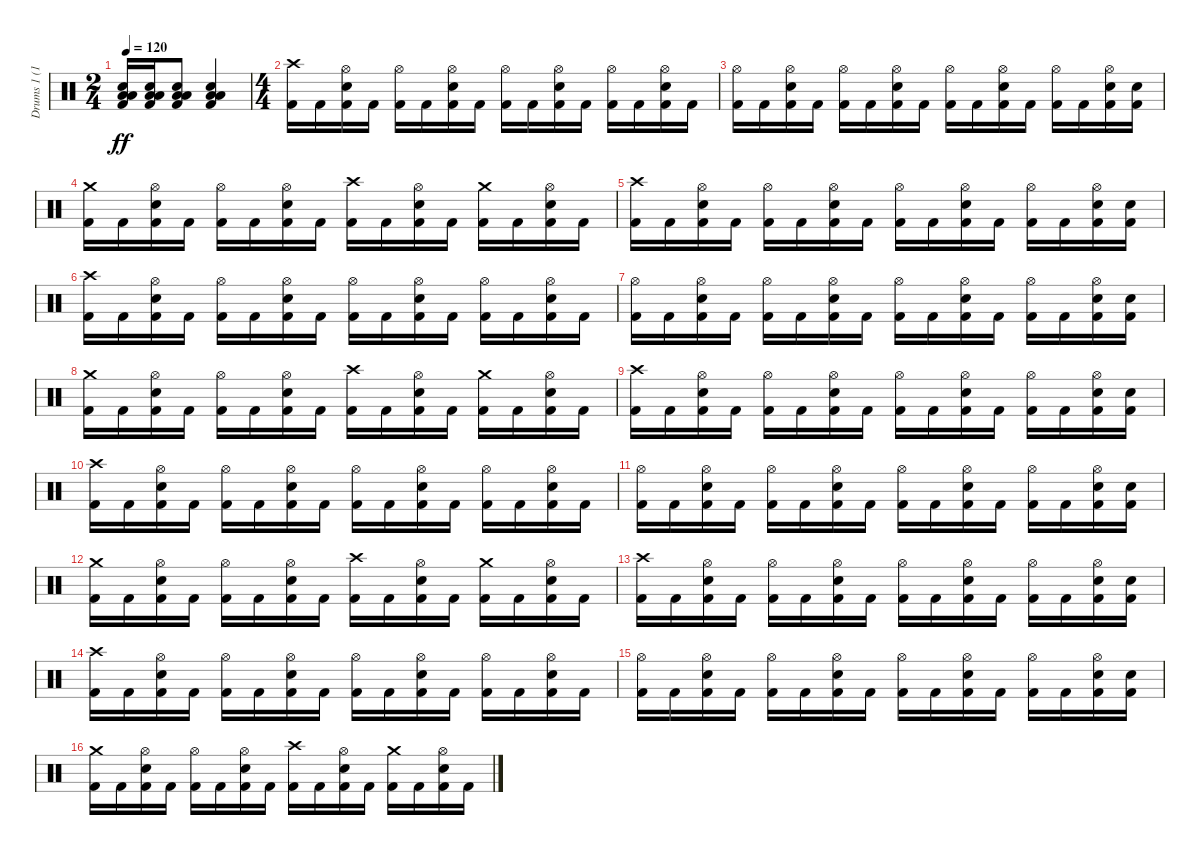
\track ("Drums 1 (16)" "Drums 1 (1") {instrument percussion}
\staff {score}
\articulation defaults
\ts (2 4)
\tempo 120
\clef neutral
\ks c
("Kick (hit) 2" "Snare (hit) 2" "Low Floor Tom (hit)" "Low Tom (hit)").16{dy ff balance 8} ("Kick (hit) 2" "Snare (hit) 2" "Low Floor Tom (hit)" "Low Tom (hit)").16 ("Kick (hit) 2" "Snare (hit) 2" "Low Floor Tom (hit)" "Low Tom (hit)").8 ("Kick (hit) 2" "Snare (hit) 2" "Low Floor Tom (hit)" "Low Tom (hit)").4 |
\ts (4 4)
("Kick (hit) 2" "Crash high (hit)").16 "Kick (hit) 2".16 ("Kick (hit) 2" "Snare (hit) 2" "Hi-Hat (open)").16 "Kick (hit) 2".16 ("Kick (hit) 2" "Hi-Hat (open)").16 "Kick (hit) 2".16 ("Kick (hit) 2" "Snare (hit) 2" "Hi-Hat (open)").16 "Kick (hit) 2".16 ("Kick (hit) 2" "Hi-Hat (open)").16 "Kick (hit) 2".16 ("Kick (hit) 2" "Snare (hit) 2" "Hi-Hat (open)").16 "Kick (hit) 2".16 ("Kick (hit) 2" "Hi-Hat (open)").16 "Kick (hit) 2".16 ("Kick (hit) 2" "Snare (hit) 2" "Hi-Hat (open)").16 "Kick (hit) 2".16 |
("Kick (hit) 2" "Hi-Hat (open)").16 "Kick (hit) 2".16 ("Kick (hit) 2" "Snare (hit) 2" "Hi-Hat (open)").16 "Kick (hit) 2".16 ("Kick (hit) 2" "Hi-Hat (open)").16 "Kick (hit) 2".16 ("Kick (hit) 2" "Snare (hit) 2" "Hi-Hat (open)").16 "Kick (hit) 2".16 ("Kick (hit) 2" "Hi-Hat (open)").16 "Kick (hit) 2".16 ("Kick (hit) 2" "Snare (hit) 2" "Hi-Hat (open)").16 "Kick (hit) 2".16 ("Kick (hit) 2" "Hi-Hat (open)").16 "Kick (hit) 2".16 ("Kick (hit) 2" "Snare (hit) 2" "Hi-Hat (open)").16 ("Kick (hit) 2" "Snare (hit) 2").16 |
("Kick (hit) 2" "Crash medium (hit)").16 "Kick (hit) 2".16 ("Kick (hit) 2" "Snare (hit) 2" "Hi-Hat (open)").16 "Kick (hit) 2".16 ("Kick (hit) 2" "Hi-Hat (open)").16 "Kick (hit) 2".16 ("Kick (hit) 2" "Snare (hit) 2" "Hi-Hat (open)").16 "Kick (hit) 2".16 ("Kick (hit) 2" "Crash high (hit)").16 "Kick (hit) 2".16 ("Kick (hit) 2" "Snare (hit) 2" "Hi-Hat (open)").16 "Kick (hit) 2".16 ("Kick (hit) 2" "Crash medium (hit)").16 "Kick (hit) 2".16 ("Kick (hit) 2" "Snare (hit) 2" "Hi-Hat (open)").16 "Kick (hit) 2".16 |
("Kick (hit) 2" "Crash high (hit)").16 "Kick (hit) 2".16 ("Kick (hit) 2" "Snare (hit) 2" "Hi-Hat (open)").16 "Kick (hit) 2".16 ("Kick (hit) 2" "Hi-Hat (open)").16 "Kick (hit) 2".16 ("Kick (hit) 2" "Snare (hit) 2" "Hi-Hat (open)").16 "Kick (hit) 2".16 ("Kick (hit) 2" "Hi-Hat (open)").16 "Kick (hit) 2".16 ("Kick (hit) 2" "Snare (hit) 2" "Hi-Hat (open)").16 "Kick (hit) 2".16 ("Kick (hit) 2" "Hi-Hat (open)").16 "Kick (hit) 2".16 ("Kick (hit) 2" "Snare (hit) 2" "Hi-Hat (open)").16 ("Kick (hit) 2" "Snare (hit) 2").16 |
("Kick (hit) 2" "Crash high (hit)").16 "Kick (hit) 2".16 ("Kick (hit) 2" "Snare (hit) 2" "Hi-Hat (open)").16 "Kick (hit) 2".16 ("Kick (hit) 2" "Hi-Hat (open)").16 "Kick (hit) 2".16 ("Kick (hit) 2" "Snare (hit) 2" "Hi-Hat (open)").16 "Kick (hit) 2".16 ("Kick (hit) 2" "Hi-Hat (open)").16 "Kick (hit) 2".16 ("Kick (hit) 2" "Snare (hit) 2" "Hi-Hat (open)").16 "Kick (hit) 2".16 ("Kick (hit) 2" "Hi-Hat (open)").16 "Kick (hit) 2".16 ("Kick (hit) 2" "Snare (hit) 2" "Hi-Hat (open)").16 "Kick (hit) 2".16 |
("Kick (hit) 2" "Hi-Hat (open)").16 "Kick (hit) 2".16 ("Kick (hit) 2" "Snare (hit) 2" "Hi-Hat (open)").16 "Kick (hit) 2".16 ("Kick (hit) 2" "Hi-Hat (open)").16 "Kick (hit) 2".16 ("Kick (hit) 2" "Snare (hit) 2" "Hi-Hat (open)").16 "Kick (hit) 2".16 ("Kick (hit) 2" "Hi-Hat (open)").16 "Kick (hit) 2".16 ("Kick (hit) 2" "Snare (hit) 2" "Hi-Hat (open)").16 "Kick (hit) 2".16 ("Kick (hit) 2" "Hi-Hat (open)").16 "Kick (hit) 2".16 ("Kick (hit) 2" "Snare (hit) 2" "Hi-Hat (open)").16 ("Kick (hit) 2" "Snare (hit) 2").16 |
("Kick (hit) 2" "Crash medium (hit)").16 "Kick (hit) 2".16 ("Kick (hit) 2" "Snare (hit) 2" "Hi-Hat (open)").16 "Kick (hit) 2".16 ("Kick (hit) 2" "Hi-Hat (open)").16 "Kick (hit) 2".16 ("Kick (hit) 2" "Snare (hit) 2" "Hi-Hat (open)").16 "Kick (hit) 2".16 ("Kick (hit) 2" "Crash high (hit)").16 "Kick (hit) 2".16 ("Kick (hit) 2" "Snare (hit) 2" "Hi-Hat (open)").16 "Kick (hit) 2".16 ("Kick (hit) 2" "Crash medium (hit)").16 "Kick (hit) 2".16 ("Kick (hit) 2" "Snare (hit) 2" "Hi-Hat (open)").16 "Kick (hit) 2".16 |
("Kick (hit) 2" "Crash high (hit)").16 "Kick (hit) 2".16 ("Kick (hit) 2" "Snare (hit) 2" "Hi-Hat (open)").16 "Kick (hit) 2".16 ("Kick (hit) 2" "Hi-Hat (open)").16 "Kick (hit) 2".16 ("Kick (hit) 2" "Snare (hit) 2" "Hi-Hat (open)").16 "Kick (hit) 2".16 ("Kick (hit) 2" "Hi-Hat (open)").16 "Kick (hit) 2".16 ("Kick (hit) 2" "Snare (hit) 2" "Hi-Hat (open)").16 "Kick (hit) 2".16 ("Kick (hit) 2" "Hi-Hat (open)").16 "Kick (hit) 2".16 ("Kick (hit) 2" "Snare (hit) 2" "Hi-Hat (open)").16 ("Kick (hit) 2" "Snare (hit) 2").16 |
("Kick (hit) 2" "Crash high (hit)").16 "Kick (hit) 2".16 ("Kick (hit) 2" "Snare (hit) 2" "Hi-Hat (open)").16 "Kick (hit) 2".16 ("Kick (hit) 2" "Hi-Hat (open)").16 "Kick (hit) 2".16 ("Kick (hit) 2" "Snare (hit) 2" "Hi-Hat (open)").16 "Kick (hit) 2".16 ("Kick (hit) 2" "Hi-Hat (open)").16 "Kick (hit) 2".16 ("Kick (hit) 2" "Snare (hit) 2" "Hi-Hat (open)").16 "Kick (hit) 2".16 ("Kick (hit) 2" "Hi-Hat (open)").16 "Kick (hit) 2".16 ("Kick (hit) 2" "Snare (hit) 2" "Hi-Hat (open)").16 "Kick (hit) 2".16 |
("Kick (hit) 2" "Hi-Hat (open)").16 "Kick (hit) 2".16 ("Kick (hit) 2" "Snare (hit) 2" "Hi-Hat (open)").16 "Kick (hit) 2".16 ("Kick (hit) 2" "Hi-Hat (open)").16 "Kick (hit) 2".16 ("Kick (hit) 2" "Snare (hit) 2" "Hi-Hat (open)").16 "Kick (hit) 2".16 ("Kick (hit) 2" "Hi-Hat (open)").16 "Kick (hit) 2".16 ("Kick (hit) 2" "Snare (hit) 2" "Hi-Hat (open)").16 "Kick (hit) 2".16 ("Kick (hit) 2" "Hi-Hat (open)").16 "Kick (hit) 2".16 ("Kick (hit) 2" "Snare (hit) 2" "Hi-Hat (open)").16 ("Kick (hit) 2" "Snare (hit) 2").16 |
("Kick (hit) 2" "Crash medium (hit)").16 "Kick (hit) 2".16 ("Kick (hit) 2" "Snare (hit) 2" "Hi-Hat (open)").16 "Kick (hit) 2".16 ("Kick (hit) 2" "Hi-Hat (open)").16 "Kick (hit) 2".16 ("Kick (hit) 2" "Snare (hit) 2" "Hi-Hat (open)").16 "Kick (hit) 2".16 ("Kick (hit) 2" "Crash high (hit)").16 "Kick (hit) 2".16 ("Kick (hit) 2" "Snare (hit) 2" "Hi-Hat (open)").16 "Kick (hit) 2".16 ("Kick (hit) 2" "Crash medium (hit)").16 "Kick (hit) 2".16 ("Kick (hit) 2" "Snare (hit) 2" "Hi-Hat (open)").16 "Kick (hit) 2".16 |
("Kick (hit) 2" "Crash high (hit)").16 "Kick (hit) 2".16 ("Kick (hit) 2" "Snare (hit) 2" "Hi-Hat (open)").16 "Kick (hit) 2".16 ("Kick (hit) 2" "Hi-Hat (open)").16 "Kick (hit) 2".16 ("Kick (hit) 2" "Snare (hit) 2" "Hi-Hat (open)").16 "Kick (hit) 2".16 ("Kick (hit) 2" "Hi-Hat (open)").16 "Kick (hit) 2".16 ("Kick (hit) 2" "Snare (hit) 2" "Hi-Hat (open)").16 "Kick (hit) 2".16 ("Kick (hit) 2" "Hi-Hat (open)").16 "Kick (hit) 2".16 ("Kick (hit) 2" "Snare (hit) 2" "Hi-Hat (open)").16 ("Kick (hit) 2" "Snare (hit) 2").16 |
("Kick (hit) 2" "Crash high (hit)").16 "Kick (hit) 2".16 ("Kick (hit) 2" "Snare (hit) 2" "Hi-Hat (open)").16 "Kick (hit) 2".16 ("Kick (hit) 2" "Hi-Hat (open)").16 "Kick (hit) 2".16 ("Kick (hit) 2" "Snare (hit) 2" "Hi-Hat (open)").16 "Kick (hit) 2".16 ("Kick (hit) 2" "Hi-Hat (open)").16 "Kick (hit) 2".16 ("Kick (hit) 2" "Snare (hit) 2" "Hi-Hat (open)").16 "Kick (hit) 2".16 ("Kick (hit) 2" "Hi-Hat (open)").16 "Kick (hit) 2".16 ("Kick (hit) 2" "Snare (hit) 2" "Hi-Hat (open)").16 "Kick (hit) 2".16 |
("Kick (hit) 2" "Hi-Hat (open)").16 "Kick (hit) 2".16 ("Kick (hit) 2" "Snare (hit) 2" "Hi-Hat (open)").16 "Kick (hit) 2".16 ("Kick (hit) 2" "Hi-Hat (open)").16 "Kick (hit) 2".16 ("Kick (hit) 2" "Snare (hit) 2" "Hi-Hat (open)").16 "Kick (hit) 2".16 ("Kick (hit) 2" "Hi-Hat (open)").16 "Kick (hit) 2".16 ("Kick (hit) 2" "Snare (hit) 2" "Hi-Hat (open)").16 "Kick (hit) 2".16 ("Kick (hit) 2" "Hi-Hat (open)").16 "Kick (hit) 2".16 ("Kick (hit) 2" "Snare (hit) 2" "Hi-Hat (open)").16 ("Kick (hit) 2" "Snare (hit) 2").16 |
("Kick (hit) 2" "Crash medium (hit)").16 "Kick (hit) 2".16 ("Kick (hit) 2" "Snare (hit) 2" "Hi-Hat (open)").16 "Kick (hit) 2".16 ("Kick (hit) 2" "Hi-Hat (open)").16 "Kick (hit) 2".16 ("Kick (hit) 2" "Snare (hit) 2" "Hi-Hat (open)").16 "Kick (hit) 2".16 ("Kick (hit) 2" "Crash high (hit)").16 "Kick (hit) 2".16 ("Kick (hit) 2" "Snare (hit) 2" "Hi-Hat (open)").16 "Kick (hit) 2".16 ("Kick (hit) 2" "Crash medium (hit)").16 "Kick (hit) 2".16 ("Kick (hit) 2" "Snare (hit) 2" "Hi-Hat (open)").16 "Kick (hit) 2".16
